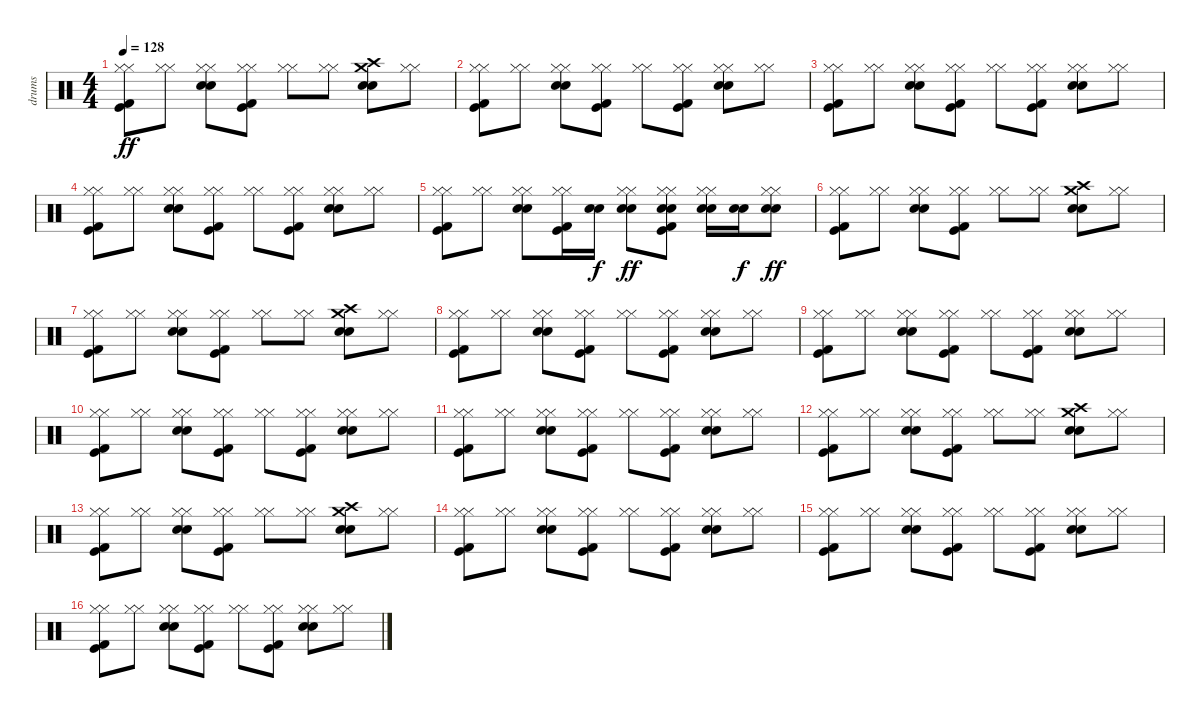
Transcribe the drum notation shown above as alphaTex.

\track ("drums" "drums") {instrument percussion}
\staff {score}
\articulation defaults
\ts (4 4)
\tempo 128
\clef neutral
\ks c
("Hi-Hat (closed)" "Hi-Hat (closed)" "Kick (hit)" "Kick (hit) 2").8{dy ff} ("Hi-Hat (closed)" "Hi-Hat (closed)").8 ("Hi-Hat (closed)" "Hi-Hat (closed)" "Snare (hit) 2" "Snare (hit) 2").8 ("Hi-Hat (closed)" "Hi-Hat (closed)" "Kick (hit)" "Kick (hit) 2").8 ("Hi-Hat (closed)" "Hi-Hat (closed)").8 ("Hi-Hat (closed)" "Hi-Hat (closed)").8 ("Crash medium (hit)" "Snare (hit) 2" "Snare (hit) 2" "Crash high (hit)").8 ("Hi-Hat (closed)" "Hi-Hat (closed)").8 |
("Hi-Hat (closed)" "Hi-Hat (closed)" "Kick (hit)" "Kick (hit) 2").8 ("Hi-Hat (closed)" "Hi-Hat (closed)").8 ("Hi-Hat (closed)" "Hi-Hat (closed)" "Snare (hit) 2" "Snare (hit) 2").8 ("Hi-Hat (closed)" "Hi-Hat (closed)" "Kick (hit)" "Kick (hit) 2").8 ("Hi-Hat (closed)" "Hi-Hat (closed)").8 ("Hi-Hat (closed)" "Hi-Hat (closed)" "Kick (hit)" "Kick (hit) 2").8 ("Hi-Hat (closed)" "Hi-Hat (closed)" "Snare (hit) 2" "Snare (hit) 2").8 ("Hi-Hat (closed)" "Hi-Hat (closed)").8 |
("Hi-Hat (closed)" "Hi-Hat (closed)" "Kick (hit)" "Kick (hit) 2").8 ("Hi-Hat (closed)" "Hi-Hat (closed)").8 ("Hi-Hat (closed)" "Hi-Hat (closed)" "Snare (hit) 2" "Snare (hit) 2").8 ("Hi-Hat (closed)" "Hi-Hat (closed)" "Kick (hit)" "Kick (hit) 2").8 ("Hi-Hat (closed)" "Hi-Hat (closed)").8 ("Hi-Hat (closed)" "Hi-Hat (closed)" "Kick (hit)" "Kick (hit) 2").8 ("Hi-Hat (closed)" "Hi-Hat (closed)" "Snare (hit) 2" "Snare (hit) 2").8 ("Hi-Hat (closed)" "Hi-Hat (closed)").8 |
("Hi-Hat (closed)" "Hi-Hat (closed)" "Kick (hit)" "Kick (hit) 2").8 ("Hi-Hat (closed)" "Hi-Hat (closed)").8 ("Hi-Hat (closed)" "Hi-Hat (closed)" "Snare (hit) 2" "Snare (hit) 2").8 ("Hi-Hat (closed)" "Hi-Hat (closed)" "Kick (hit)" "Kick (hit) 2").8 ("Hi-Hat (closed)" "Hi-Hat (closed)").8 ("Hi-Hat (closed)" "Hi-Hat (closed)" "Kick (hit)" "Kick (hit) 2").8 ("Hi-Hat (closed)" "Hi-Hat (closed)" "Snare (hit) 2" "Snare (hit) 2").8 ("Hi-Hat (closed)" "Hi-Hat (closed)").8 |
("Hi-Hat (closed)" "Hi-Hat (closed)" "Kick (hit)" "Kick (hit) 2").8 ("Hi-Hat (closed)" "Hi-Hat (closed)").8 ("Hi-Hat (closed)" "Hi-Hat (closed)" "Snare (hit) 2" "Snare (hit) 2").8 ("Hi-Hat (closed)" "Hi-Hat (closed)" "Kick (hit)" "Kick (hit) 2").16 ("Snare (hit) 2" "Snare (hit) 2").16{dy f} ("Hi-Hat (closed)" "Hi-Hat (closed)" "Snare (hit) 2" "Snare (hit) 2").8{dy ff} ("Hi-Hat (closed)" "Hi-Hat (closed)" "Snare (hit) 2" "Snare (hit) 2" "Kick (hit)" "Kick (hit) 2").8 ("Hi-Hat (closed)" "Hi-Hat (closed)" "Snare (hit) 2" "Snare (hit) 2").16 ("Snare (hit) 2" "Snare (hit) 2").16{dy f} ("Hi-Hat (closed)" "Hi-Hat (closed)" "Snare (hit) 2" "Snare (hit) 2").8{dy ff} |
("Hi-Hat (closed)" "Hi-Hat (closed)" "Kick (hit)" "Kick (hit) 2").8 ("Hi-Hat (closed)" "Hi-Hat (closed)").8 ("Hi-Hat (closed)" "Hi-Hat (closed)" "Snare (hit) 2" "Snare (hit) 2").8 ("Hi-Hat (closed)" "Hi-Hat (closed)" "Kick (hit)" "Kick (hit) 2").8 ("Hi-Hat (closed)" "Hi-Hat (closed)").8 ("Hi-Hat (closed)" "Hi-Hat (closed)").8 ("Crash medium (hit)" "Snare (hit) 2" "Snare (hit) 2" "Crash high (hit)").8 ("Hi-Hat (closed)" "Hi-Hat (closed)").8 |
("Hi-Hat (closed)" "Hi-Hat (closed)" "Kick (hit)" "Kick (hit) 2").8 ("Hi-Hat (closed)" "Hi-Hat (closed)").8 ("Hi-Hat (closed)" "Hi-Hat (closed)" "Snare (hit) 2" "Snare (hit) 2").8 ("Hi-Hat (closed)" "Hi-Hat (closed)" "Kick (hit)" "Kick (hit) 2").8 ("Hi-Hat (closed)" "Hi-Hat (closed)").8 ("Hi-Hat (closed)" "Hi-Hat (closed)").8 ("Crash medium (hit)" "Snare (hit) 2" "Snare (hit) 2" "Crash high (hit)").8 ("Hi-Hat (closed)" "Hi-Hat (closed)").8 |
("Hi-Hat (closed)" "Hi-Hat (closed)" "Kick (hit)" "Kick (hit) 2").8 ("Hi-Hat (closed)" "Hi-Hat (closed)").8 ("Hi-Hat (closed)" "Hi-Hat (closed)" "Snare (hit) 2" "Snare (hit) 2").8 ("Hi-Hat (closed)" "Hi-Hat (closed)" "Kick (hit)" "Kick (hit) 2").8 ("Hi-Hat (closed)" "Hi-Hat (closed)").8 ("Hi-Hat (closed)" "Hi-Hat (closed)" "Kick (hit)" "Kick (hit) 2").8 ("Hi-Hat (closed)" "Hi-Hat (closed)" "Snare (hit) 2" "Snare (hit) 2").8 ("Hi-Hat (closed)" "Hi-Hat (closed)").8 |
("Hi-Hat (closed)" "Hi-Hat (closed)" "Kick (hit)" "Kick (hit) 2").8 ("Hi-Hat (closed)" "Hi-Hat (closed)").8 ("Hi-Hat (closed)" "Hi-Hat (closed)" "Snare (hit) 2" "Snare (hit) 2").8 ("Hi-Hat (closed)" "Hi-Hat (closed)" "Kick (hit)" "Kick (hit) 2").8 ("Hi-Hat (closed)" "Hi-Hat (closed)").8 ("Hi-Hat (closed)" "Hi-Hat (closed)" "Kick (hit)" "Kick (hit) 2").8 ("Hi-Hat (closed)" "Hi-Hat (closed)" "Snare (hit) 2" "Snare (hit) 2").8 ("Hi-Hat (closed)" "Hi-Hat (closed)").8 |
("Hi-Hat (closed)" "Hi-Hat (closed)" "Kick (hit)" "Kick (hit) 2").8 ("Hi-Hat (closed)" "Hi-Hat (closed)").8 ("Hi-Hat (closed)" "Hi-Hat (closed)" "Snare (hit) 2" "Snare (hit) 2").8 ("Hi-Hat (closed)" "Hi-Hat (closed)" "Kick (hit)" "Kick (hit) 2").8 ("Hi-Hat (closed)" "Hi-Hat (closed)").8 ("Hi-Hat (closed)" "Hi-Hat (closed)" "Kick (hit)" "Kick (hit) 2").8 ("Hi-Hat (closed)" "Hi-Hat (closed)" "Snare (hit) 2" "Snare (hit) 2").8 ("Hi-Hat (closed)" "Hi-Hat (closed)").8 |
("Hi-Hat (closed)" "Hi-Hat (closed)" "Kick (hit)" "Kick (hit) 2").8 ("Hi-Hat (closed)" "Hi-Hat (closed)").8 ("Hi-Hat (closed)" "Hi-Hat (closed)" "Snare (hit) 2" "Snare (hit) 2").8 ("Hi-Hat (closed)" "Hi-Hat (closed)" "Kick (hit)" "Kick (hit) 2").8 ("Hi-Hat (closed)" "Hi-Hat (closed)").8 ("Hi-Hat (closed)" "Hi-Hat (closed)" "Kick (hit)" "Kick (hit) 2").8 ("Hi-Hat (closed)" "Hi-Hat (closed)" "Snare (hit) 2" "Snare (hit) 2").8 ("Hi-Hat (closed)" "Hi-Hat (closed)").8 |
("Hi-Hat (closed)" "Hi-Hat (closed)" "Kick (hit)" "Kick (hit) 2").8 ("Hi-Hat (closed)" "Hi-Hat (closed)").8 ("Hi-Hat (closed)" "Hi-Hat (closed)" "Snare (hit) 2" "Snare (hit) 2").8 ("Hi-Hat (closed)" "Hi-Hat (closed)" "Kick (hit)" "Kick (hit) 2").8 ("Hi-Hat (closed)" "Hi-Hat (closed)").8 ("Hi-Hat (closed)" "Hi-Hat (closed)").8 ("Crash medium (hit)" "Snare (hit) 2" "Snare (hit) 2" "Crash high (hit)").8 ("Hi-Hat (closed)" "Hi-Hat (closed)").8 |
("Hi-Hat (closed)" "Hi-Hat (closed)" "Kick (hit)" "Kick (hit) 2").8 ("Hi-Hat (closed)" "Hi-Hat (closed)").8 ("Hi-Hat (closed)" "Hi-Hat (closed)" "Snare (hit) 2" "Snare (hit) 2").8 ("Hi-Hat (closed)" "Hi-Hat (closed)" "Kick (hit)" "Kick (hit) 2").8 ("Hi-Hat (closed)" "Hi-Hat (closed)").8 ("Hi-Hat (closed)" "Hi-Hat (closed)").8 ("Crash medium (hit)" "Snare (hit) 2" "Snare (hit) 2" "Crash high (hit)").8 ("Hi-Hat (closed)" "Hi-Hat (closed)").8 |
("Hi-Hat (closed)" "Hi-Hat (closed)" "Kick (hit)" "Kick (hit) 2").8 ("Hi-Hat (closed)" "Hi-Hat (closed)").8 ("Hi-Hat (closed)" "Hi-Hat (closed)" "Snare (hit) 2" "Snare (hit) 2").8 ("Hi-Hat (closed)" "Hi-Hat (closed)" "Kick (hit)" "Kick (hit) 2").8 ("Hi-Hat (closed)" "Hi-Hat (closed)").8 ("Hi-Hat (closed)" "Hi-Hat (closed)" "Kick (hit)" "Kick (hit) 2").8 ("Hi-Hat (closed)" "Hi-Hat (closed)" "Snare (hit) 2" "Snare (hit) 2").8 ("Hi-Hat (closed)" "Hi-Hat (closed)").8 |
("Hi-Hat (closed)" "Hi-Hat (closed)" "Kick (hit)" "Kick (hit) 2").8 ("Hi-Hat (closed)" "Hi-Hat (closed)").8 ("Hi-Hat (closed)" "Hi-Hat (closed)" "Snare (hit) 2" "Snare (hit) 2").8 ("Hi-Hat (closed)" "Hi-Hat (closed)" "Kick (hit)" "Kick (hit) 2").8 ("Hi-Hat (closed)" "Hi-Hat (closed)").8 ("Hi-Hat (closed)" "Hi-Hat (closed)" "Kick (hit)" "Kick (hit) 2").8 ("Hi-Hat (closed)" "Hi-Hat (closed)" "Snare (hit) 2" "Snare (hit) 2").8 ("Hi-Hat (closed)" "Hi-Hat (closed)").8 |
("Hi-Hat (closed)" "Hi-Hat (closed)" "Kick (hit)" "Kick (hit) 2").8 ("Hi-Hat (closed)" "Hi-Hat (closed)").8 ("Hi-Hat (closed)" "Hi-Hat (closed)" "Snare (hit) 2" "Snare (hit) 2").8 ("Hi-Hat (closed)" "Hi-Hat (closed)" "Kick (hit)" "Kick (hit) 2").8 ("Hi-Hat (closed)" "Hi-Hat (closed)").8 ("Hi-Hat (closed)" "Hi-Hat (closed)" "Kick (hit)" "Kick (hit) 2").8 ("Hi-Hat (closed)" "Hi-Hat (closed)" "Snare (hit) 2" "Snare (hit) 2").8 ("Hi-Hat (closed)" "Hi-Hat (closed)").8
